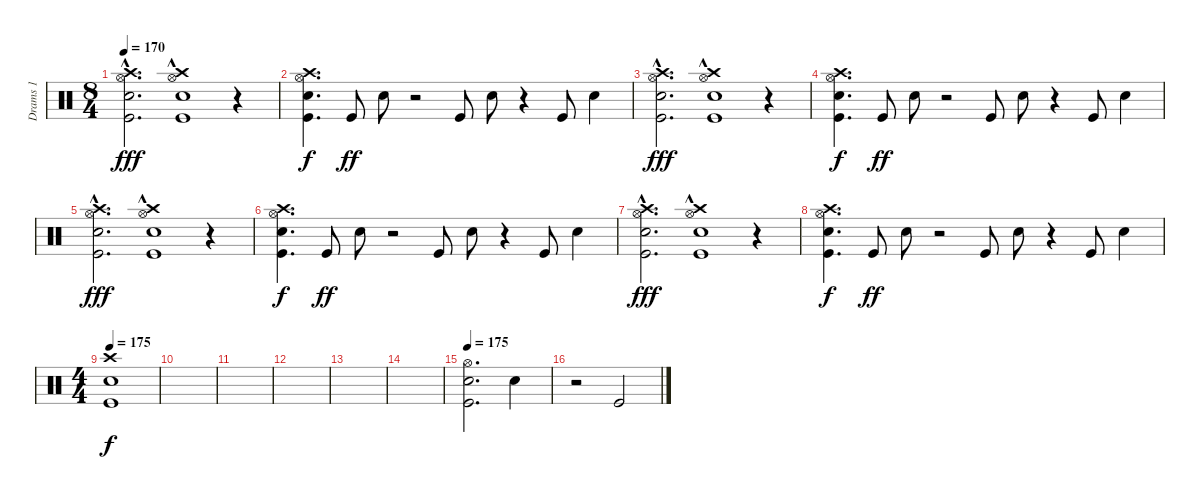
\track ("Drams 1" "Drams 1") {instrument percussion}
\staff {score}
\articulation defaults
\ts (8 4)
\tempo 170
\clef neutral
\ks c
("Snare (hit) 2"{hac} "Kick (hit)"{hac} "Crash high (hit)"{hac} "Hi-Hat (open)"{hac}).2{d dy fff} ("Snare (hit) 2"{hac} "Kick (hit)"{hac} "Crash high (hit)"{hac} "Hi-Hat (open)"{hac}).1 r.4 |
("Snare (hit) 2" "Kick (hit)" "Crash high (hit)" "Hi-Hat (open)").4{d dy f} "Kick (hit)".8{dy ff} "Snare (hit) 2".8 r.2 "Kick (hit)".8 "Snare (hit) 2".8 r.4 "Kick (hit)".8 "Snare (hit) 2".4 |
("Snare (hit) 2"{hac} "Kick (hit)"{hac} "Crash high (hit)"{hac} "Hi-Hat (open)"{hac}).2{d dy fff} ("Snare (hit) 2"{hac} "Kick (hit)"{hac} "Crash high (hit)"{hac} "Hi-Hat (open)"{hac}).1 r.4 |
("Snare (hit) 2" "Kick (hit)" "Crash high (hit)" "Hi-Hat (open)").4{d dy f} "Kick (hit)".8{dy ff} "Snare (hit) 2".8 r.2 "Kick (hit)".8 "Snare (hit) 2".8 r.4 "Kick (hit)".8 "Snare (hit) 2".4 |
("Snare (hit) 2"{hac} "Kick (hit)"{hac} "Crash high (hit)"{hac} "Hi-Hat (open)"{hac}).2{d dy fff} ("Snare (hit) 2"{hac} "Kick (hit)"{hac} "Crash high (hit)"{hac} "Hi-Hat (open)"{hac}).1 r.4 |
("Snare (hit) 2" "Kick (hit)" "Crash high (hit)" "Hi-Hat (open)").4{d dy f} "Kick (hit)".8{dy ff} "Snare (hit) 2".8 r.2 "Kick (hit)".8 "Snare (hit) 2".8 r.4 "Kick (hit)".8 "Snare (hit) 2".4 |
("Snare (hit) 2"{hac} "Kick (hit)"{hac} "Crash high (hit)"{hac} "Hi-Hat (open)"{hac}).2{d dy fff} ("Snare (hit) 2"{hac} "Kick (hit)"{hac} "Crash high (hit)"{hac} "Hi-Hat (open)"{hac}).1 r.4 |
("Snare (hit) 2" "Kick (hit)" "Crash high (hit)" "Hi-Hat (open)").4{d dy f} "Kick (hit)".8{dy ff} "Snare (hit) 2".8 r.2 "Kick (hit)".8 "Snare (hit) 2".8 r.4 "Kick (hit)".8 "Snare (hit) 2".4 |
\ts (4 4)
\tempo 175
("Crash high (hit)" "Snare (hit) 2" "Kick (hit)").1{dy f} |
|
|
|
|
|
\tempo 175
("Kick (hit)" "Snare (hit) 2" "Hi-Hat (open)").2{d} "Snare (hit) 2".4 |
r.2 "Kick (hit)".2
